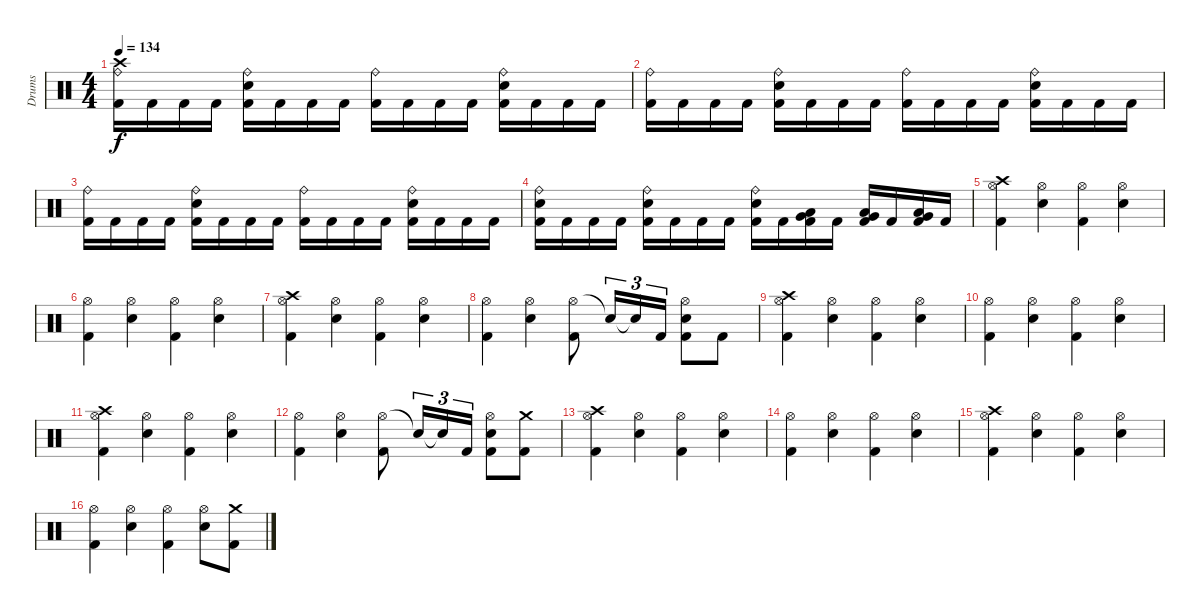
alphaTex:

\track ("Drums" "Drums") {instrument percussion}
\staff {score}
\articulation defaults
\ts (4 4)
\tempo 134
\clef neutral
\ks c
("Crash high (hit)" "Ride (bell)" "Kick (hit) 2").16{dy f} "Kick (hit) 2".16 "Kick (hit) 2".16 "Kick (hit) 2".16 ("Ride (bell)" "Electric Snare (hit)" "Kick (hit) 2").16 "Kick (hit) 2".16 "Kick (hit) 2".16 "Kick (hit) 2".16 ("Ride (bell)" "Kick (hit) 2").16 "Kick (hit) 2".16 "Kick (hit) 2".16 "Kick (hit) 2".16 ("Ride (bell)" "Electric Snare (hit)" "Kick (hit) 2").16 "Kick (hit) 2".16 "Kick (hit) 2".16 "Kick (hit) 2".16 |
("Ride (bell)" "Kick (hit) 2").16 "Kick (hit) 2".16 "Kick (hit) 2".16 "Kick (hit) 2".16 ("Ride (bell)" "Electric Snare (hit)" "Kick (hit) 2").16 "Kick (hit) 2".16 "Kick (hit) 2".16 "Kick (hit) 2".16 ("Ride (bell)" "Kick (hit) 2").16 "Kick (hit) 2".16 "Kick (hit) 2".16 "Kick (hit) 2".16 ("Ride (bell)" "Electric Snare (hit)" "Kick (hit) 2").16 "Kick (hit) 2".16 "Kick (hit) 2".16 "Kick (hit) 2".16 |
("Ride (bell)" "Kick (hit) 2").16 "Kick (hit) 2".16 "Kick (hit) 2".16 "Kick (hit) 2".16 ("Ride (bell)" "Electric Snare (hit)" "Kick (hit) 2").16 "Kick (hit) 2".16 "Kick (hit) 2".16 "Kick (hit) 2".16 ("Ride (bell)" "Kick (hit) 2").16 "Kick (hit) 2".16 "Kick (hit) 2".16 "Kick (hit) 2".16 ("Ride (bell)" "Electric Snare (hit)" "Kick (hit) 2").16 "Kick (hit) 2".16 "Kick (hit) 2".16 "Kick (hit) 2".16 |
("Ride (bell)" "Electric Snare (hit)" "Kick (hit) 2").16 "Kick (hit) 2".16 "Kick (hit) 2".16 "Kick (hit) 2".16 ("Ride (bell)" "Electric Snare (hit)" "Kick (hit) 2").16 "Kick (hit) 2".16 "Kick (hit) 2".16 "Kick (hit) 2".16 ("Ride (bell)" "Electric Snare (hit)" "Kick (hit) 2").16 "Kick (hit) 2".16 ("Very Low Tom (hit)" "Low Floor Tom (hit)" "Kick (hit) 2").16 "Kick (hit) 2".16 ("Very Low Tom (hit)" "Low Floor Tom (hit)" "Kick (hit) 2").16 "Kick (hit) 2".16 ("Very Low Tom (hit)" "Low Floor Tom (hit)" "Kick (hit) 2").16 "Kick (hit) 2".16 |
("Crash high (hit)" "Hi-Hat (open)" "Kick (hit) 2").4 ("Hi-Hat (open)" "Electric Snare (hit)").4 ("Hi-Hat (open)" "Kick (hit) 2").4 ("Hi-Hat (open)" "Electric Snare (hit)").4 |
("Hi-Hat (open)" "Kick (hit) 2").4 ("Hi-Hat (open)" "Electric Snare (hit)").4 ("Hi-Hat (open)" "Kick (hit) 2").4 ("Hi-Hat (open)" "Electric Snare (hit)").4 |
("Crash high (hit)" "Hi-Hat (open)" "Kick (hit) 2").4 ("Hi-Hat (open)" "Electric Snare (hit)").4 ("Hi-Hat (open)" "Kick (hit) 2").4 ("Hi-Hat (open)" "Electric Snare (hit)").4 |
("Hi-Hat (open)" "Kick (hit) 2").4 ("Hi-Hat (open)" "Electric Snare (hit)").4 ("Hi-Hat (open)" "Kick (hit) 2").8 "Snare (hit)"{t}.16{tu (3 2)} "Snare (hit)"{t}.16{tu (3 2)} "Kick (hit) 2".16{tu (3 2)} ("Hi-Hat (open)" "Electric Snare (hit)" "Kick (hit) 2").8 "Kick (hit) 2".8 |
("Crash high (hit)" "Hi-Hat (open)" "Kick (hit) 2").4 ("Hi-Hat (open)" "Electric Snare (hit)").4 ("Hi-Hat (open)" "Kick (hit) 2").4 ("Hi-Hat (open)" "Electric Snare (hit)").4 |
("Hi-Hat (open)" "Kick (hit) 2").4 ("Hi-Hat (open)" "Electric Snare (hit)").4 ("Hi-Hat (open)" "Kick (hit) 2").4 ("Hi-Hat (open)" "Electric Snare (hit)").4 |
("Crash high (hit)" "Hi-Hat (open)" "Kick (hit) 2").4 ("Hi-Hat (open)" "Electric Snare (hit)").4 ("Hi-Hat (open)" "Kick (hit) 2").4 ("Hi-Hat (open)" "Electric Snare (hit)").4 |
("Hi-Hat (open)" "Kick (hit) 2").4 ("Hi-Hat (open)" "Electric Snare (hit)").4 ("Hi-Hat (open)" "Kick (hit) 2").8 "Snare (hit)"{t}.16{tu (3 2)} "Snare (hit)"{t}.16{tu (3 2)} "Kick (hit) 2".16{tu (3 2)} ("Hi-Hat (open)" "Electric Snare (hit)" "Kick (hit) 2").8 ("Crash medium (hit)" "Kick (hit) 2").8 |
("Crash high (hit)" "Hi-Hat (open)" "Kick (hit) 2").4 ("Hi-Hat (open)" "Electric Snare (hit)").4 ("Hi-Hat (open)" "Kick (hit) 2").4 ("Hi-Hat (open)" "Electric Snare (hit)").4 |
("Hi-Hat (open)" "Kick (hit) 2").4 ("Hi-Hat (open)" "Electric Snare (hit)").4 ("Hi-Hat (open)" "Kick (hit) 2").4 ("Hi-Hat (open)" "Electric Snare (hit)").4 |
("Crash high (hit)" "Hi-Hat (open)" "Kick (hit) 2").4 ("Hi-Hat (open)" "Electric Snare (hit)").4 ("Hi-Hat (open)" "Kick (hit) 2").4 ("Hi-Hat (open)" "Electric Snare (hit)").4 |
("Hi-Hat (open)" "Kick (hit) 2").4 ("Hi-Hat (open)" "Electric Snare (hit)").4 ("Hi-Hat (open)" "Kick (hit) 2").4 ("Hi-Hat (open)" "Electric Snare (hit)").8 ("Crash medium (hit)" "Kick (hit) 2").8
